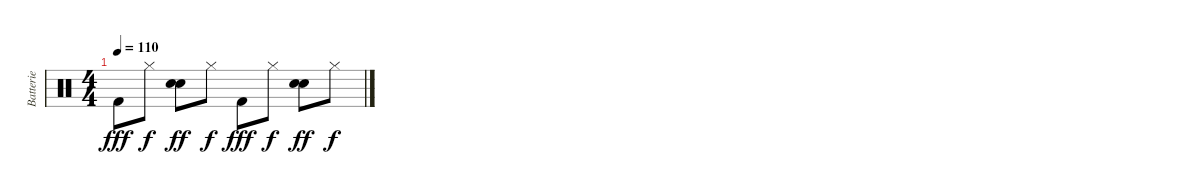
\track ("Batterie" "Batterie") {instrument percussion}
\staff {score}
\articulation defaults
\ts (4 4)
\tempo 110
\clef neutral
\ks c "Kick (hit) 2".8{dy fff} "Hi-Hat (closed)".8{dy f}
("Snare (hit) 2" "Hand Clap (hit)").8{dy ff} "Hi-Hat (closed)".8{dy f} "Kick (hit) 2".8{dy fff} "Hi-Hat (closed)".8{dy f} ("Snare (hit) 2" "Hand Clap (hit)").8{dy ff} "Hi-Hat (closed)".8{dy f}
